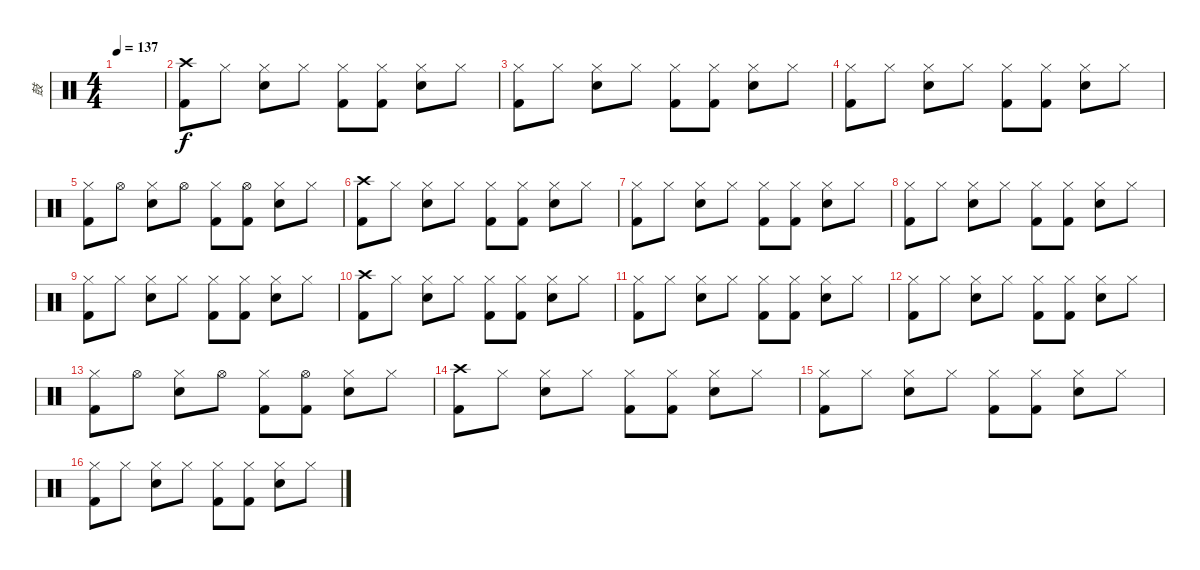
\track ("鼓" "鼓") {instrument percussion}
\staff {score}
\articulation defaults
\ts (4 4)
\tempo 137
\clef neutral
\ks c
|
("Crash high (hit)" "Kick (hit) 2").8 "Hi-Hat (closed)".8 ("Hi-Hat (closed)" "Snare (hit) 2").8 "Hi-Hat (closed)".8 ("Hi-Hat (closed)" "Kick (hit) 2").8 ("Hi-Hat (closed)" "Kick (hit) 2").8 ("Hi-Hat (closed)" "Snare (hit) 2").8 "Hi-Hat (closed)".8 |
("Hi-Hat (closed)" "Kick (hit) 2").8 "Hi-Hat (closed)".8 ("Hi-Hat (closed)" "Snare (hit) 2").8 "Hi-Hat (closed)".8 ("Hi-Hat (closed)" "Kick (hit) 2").8 ("Hi-Hat (closed)" "Kick (hit) 2").8 ("Hi-Hat (closed)" "Snare (hit) 2").8 "Hi-Hat (closed)".8 |
("Hi-Hat (closed)" "Kick (hit) 2").8 "Hi-Hat (closed)".8 ("Hi-Hat (closed)" "Snare (hit) 2").8 "Hi-Hat (closed)".8 ("Hi-Hat (closed)" "Kick (hit) 2").8 ("Hi-Hat (closed)" "Kick (hit) 2").8 ("Hi-Hat (closed)" "Snare (hit) 2").8 "Hi-Hat (closed)".8 |
("Hi-Hat (closed)" "Kick (hit) 2").8 "Hi-Hat (open)".8 ("Hi-Hat (closed)" "Snare (hit) 2").8 "Hi-Hat (open)".8 ("Hi-Hat (closed)" "Kick (hit) 2").8 ("Hi-Hat (open)" "Kick (hit) 2").8 ("Hi-Hat (closed)" "Snare (hit) 2").8 "Hi-Hat (closed)".8 |
("Crash high (hit)" "Kick (hit) 2").8 "Hi-Hat (closed)".8 ("Hi-Hat (closed)" "Snare (hit) 2").8 "Hi-Hat (closed)".8 ("Hi-Hat (closed)" "Kick (hit) 2").8 ("Hi-Hat (closed)" "Kick (hit) 2").8 ("Hi-Hat (closed)" "Snare (hit) 2").8 "Hi-Hat (closed)".8 |
("Hi-Hat (closed)" "Kick (hit) 2").8 "Hi-Hat (closed)".8 ("Hi-Hat (closed)" "Snare (hit) 2").8 "Hi-Hat (closed)".8 ("Hi-Hat (closed)" "Kick (hit) 2").8 ("Hi-Hat (closed)" "Kick (hit) 2").8 ("Hi-Hat (closed)" "Snare (hit) 2").8 "Hi-Hat (closed)".8 |
("Hi-Hat (closed)" "Kick (hit) 2").8 "Hi-Hat (closed)".8 ("Hi-Hat (closed)" "Snare (hit) 2").8 "Hi-Hat (closed)".8 ("Hi-Hat (closed)" "Kick (hit) 2").8 ("Hi-Hat (closed)" "Kick (hit) 2").8 ("Hi-Hat (closed)" "Snare (hit) 2").8 "Hi-Hat (closed)".8 |
("Hi-Hat (closed)" "Kick (hit) 2").8 "Hi-Hat (closed)".8 ("Hi-Hat (closed)" "Snare (hit) 2").8 "Hi-Hat (closed)".8 ("Hi-Hat (closed)" "Kick (hit) 2").8 ("Hi-Hat (closed)" "Kick (hit) 2").8 ("Hi-Hat (closed)" "Snare (hit) 2").8 "Hi-Hat (closed)".8 |
("Crash high (hit)" "Kick (hit) 2").8 "Hi-Hat (closed)".8 ("Hi-Hat (closed)" "Snare (hit) 2").8 "Hi-Hat (closed)".8 ("Hi-Hat (closed)" "Kick (hit) 2").8 ("Hi-Hat (closed)" "Kick (hit) 2").8 ("Hi-Hat (closed)" "Snare (hit) 2").8 "Hi-Hat (closed)".8 |
("Hi-Hat (closed)" "Kick (hit) 2").8 "Hi-Hat (closed)".8 ("Hi-Hat (closed)" "Snare (hit) 2").8 "Hi-Hat (closed)".8 ("Hi-Hat (closed)" "Kick (hit) 2").8 ("Hi-Hat (closed)" "Kick (hit) 2").8 ("Hi-Hat (closed)" "Snare (hit) 2").8 "Hi-Hat (closed)".8 |
("Hi-Hat (closed)" "Kick (hit) 2").8 "Hi-Hat (closed)".8 ("Hi-Hat (closed)" "Snare (hit) 2").8 "Hi-Hat (closed)".8 ("Hi-Hat (closed)" "Kick (hit) 2").8 ("Hi-Hat (closed)" "Kick (hit) 2").8 ("Hi-Hat (closed)" "Snare (hit) 2").8 "Hi-Hat (closed)".8 |
("Hi-Hat (closed)" "Kick (hit) 2").8 "Hi-Hat (open)".8 ("Hi-Hat (closed)" "Snare (hit) 2").8 "Hi-Hat (open)".8 ("Hi-Hat (closed)" "Kick (hit) 2").8 ("Hi-Hat (open)" "Kick (hit) 2").8 ("Hi-Hat (closed)" "Snare (hit) 2").8 "Hi-Hat (closed)".8 |
("Crash high (hit)" "Kick (hit) 2").8 "Hi-Hat (closed)".8 ("Hi-Hat (closed)" "Snare (hit) 2").8 "Hi-Hat (closed)".8 ("Hi-Hat (closed)" "Kick (hit) 2").8 ("Hi-Hat (closed)" "Kick (hit) 2").8 ("Hi-Hat (closed)" "Snare (hit) 2").8 "Hi-Hat (closed)".8 |
("Hi-Hat (closed)" "Kick (hit) 2").8 "Hi-Hat (closed)".8 ("Hi-Hat (closed)" "Snare (hit) 2").8 "Hi-Hat (closed)".8 ("Hi-Hat (closed)" "Kick (hit) 2").8 ("Hi-Hat (closed)" "Kick (hit) 2").8 ("Hi-Hat (closed)" "Snare (hit) 2").8 "Hi-Hat (closed)".8 |
("Hi-Hat (closed)" "Kick (hit) 2").8 "Hi-Hat (closed)".8 ("Hi-Hat (closed)" "Snare (hit) 2").8 "Hi-Hat (closed)".8 ("Hi-Hat (closed)" "Kick (hit) 2").8 ("Hi-Hat (closed)" "Kick (hit) 2").8 ("Hi-Hat (closed)" "Snare (hit) 2").8 "Hi-Hat (closed)".8
